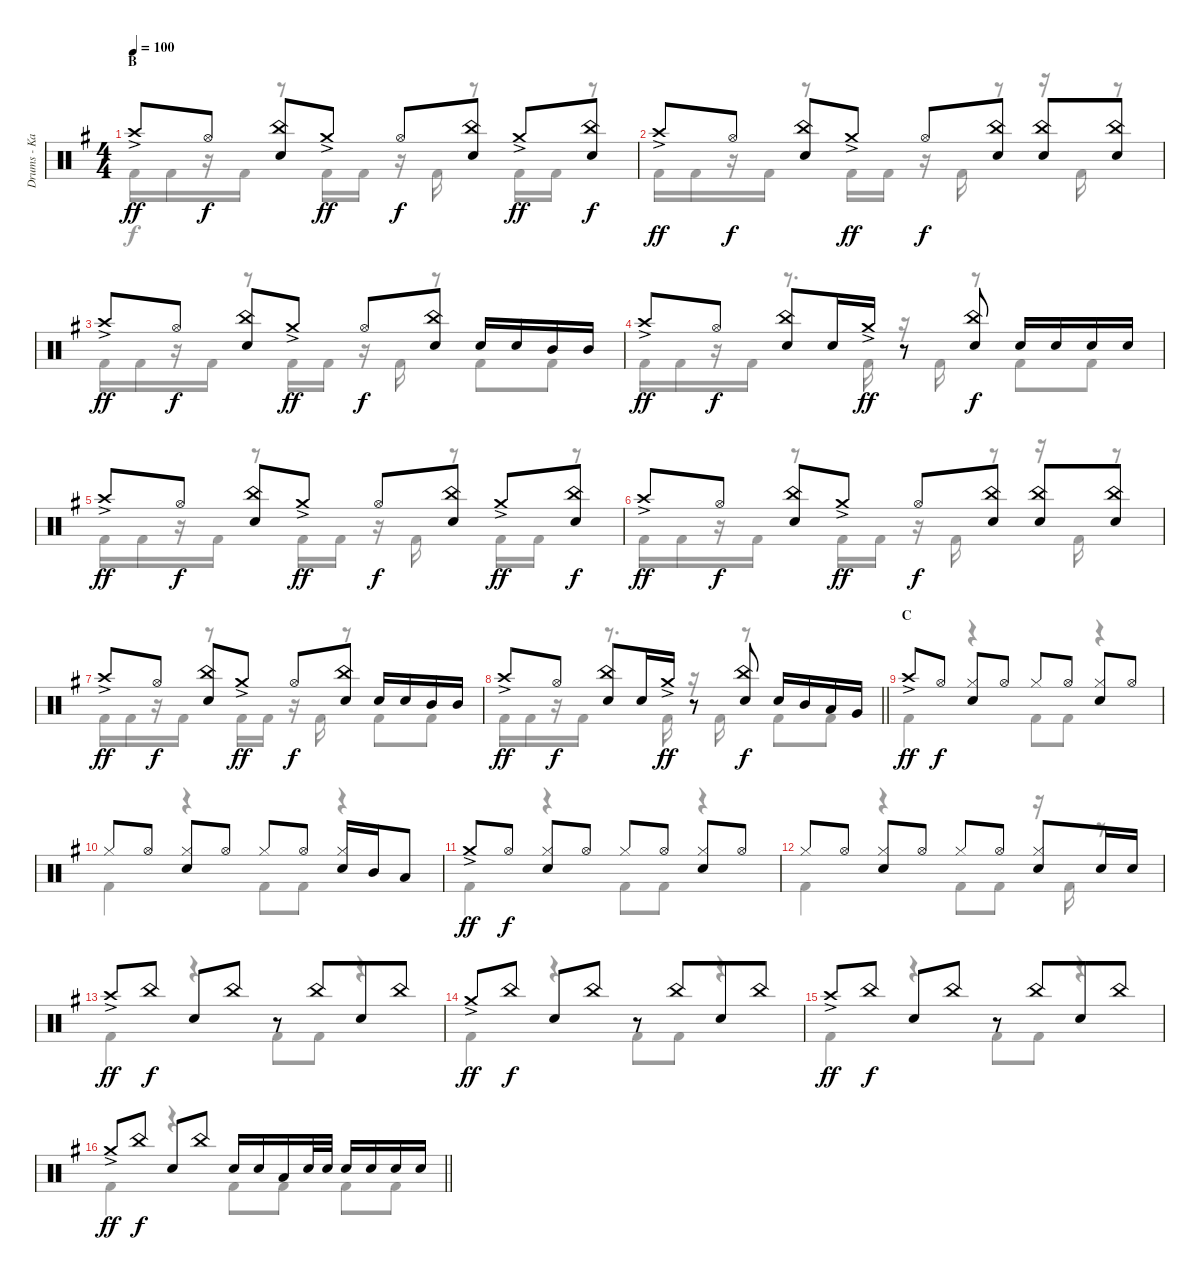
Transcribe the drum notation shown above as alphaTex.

\track ("Drums - Kai" "Drums - Ka") {instrument percussion}
\staff {score}
\articulation defaults
\voice
\ts (4 4)
\section ("" "B")
\tempo 100
\clef neutral
\ks g "Crash high (hit)"{ac}.8{dy ff} "Hi-Hat (open)".8{dy f}
("China (hit)" "Electric Snare (hit)").8 "Crash medium (hit)"{ac}.8{dy ff} "Hi-Hat (open)".8{dy f} ("China (hit)" "Electric Snare (hit)").8 "Crash medium (hit)"{ac}.8{dy ff} ("China (hit)" "Electric Snare (hit)").8{dy f} |
"Crash high (hit)"{ac}.8{dy ff} "Hi-Hat (open)".8{dy f} ("China (hit)" "Electric Snare (hit)").8 "Crash medium (hit)"{ac}.8{dy ff} "Hi-Hat (open)".8{dy f} ("China (hit)" "Electric Snare (hit)").8 ("China (hit)" "Electric Snare (hit)").8 ("China (hit)" "Electric Snare (hit)").8 |
"Crash high (hit)"{ac}.8{dy ff} "Hi-Hat (open)".8{dy f} ("China (hit)" "Electric Snare (hit)").8 "Crash medium (hit)"{ac}.8{dy ff} "Hi-Hat (open)".8{dy f} ("China (hit)" "Electric Snare (hit)").8 "Electric Snare (hit)".16 "Electric Snare (hit)".16 "Mid Tom (hit)".16 "Mid Tom (hit)".16 |
"Crash high (hit)"{ac}.8{dy ff} "Hi-Hat (open)".8{dy f} ("China (hit)" "Electric Snare (hit)").8 "Electric Snare (hit)".16 "Crash medium (hit)"{ac}.16{dy ff} r.8 ("China (hit)" "Electric Snare (hit)").8{dy f} "Electric Snare (hit)".16 "Electric Snare (hit)".16 "Electric Snare (hit)".16 "Electric Snare (hit)".16 |
"Crash high (hit)"{ac}.8{dy ff} "Hi-Hat (open)".8{dy f} ("China (hit)" "Electric Snare (hit)").8 "Crash medium (hit)"{ac}.8{dy ff} "Hi-Hat (open)".8{dy f} ("China (hit)" "Electric Snare (hit)").8 "Crash medium (hit)"{ac}.8{dy ff} ("China (hit)" "Electric Snare (hit)").8{dy f} |
"Crash high (hit)"{ac}.8{dy ff} "Hi-Hat (open)".8{dy f} ("China (hit)" "Electric Snare (hit)").8 "Crash medium (hit)"{ac}.8{dy ff} "Hi-Hat (open)".8{dy f} ("China (hit)" "Electric Snare (hit)").8 ("China (hit)" "Electric Snare (hit)").8 ("China (hit)" "Electric Snare (hit)").8 |
"Crash high (hit)"{ac}.8{dy ff} "Hi-Hat (open)".8{dy f} ("China (hit)" "Electric Snare (hit)").8 "Crash medium (hit)"{ac}.8{dy ff} "Hi-Hat (open)".8{dy f} ("China (hit)" "Electric Snare (hit)").8 "Electric Snare (hit)".16 "Electric Snare (hit)".16 "Mid Tom (hit)".16 "Mid Tom (hit)".16 |
\barLineRight lightlight "Crash high (hit)"{ac}.8{dy ff} "Hi-Hat (open)".8{dy f}
("China (hit)" "Electric Snare (hit)").8 "Electric Snare (hit)".16 "Crash medium (hit)"{ac}.16{dy ff} r.8 ("China (hit)" "Electric Snare (hit)").8{dy f} "Electric Snare (hit)".16 "Mid Tom (hit)".16 "Low Tom (hit)".16 "Very Low Tom (hit)".16 |
\section ("" "C")
"Crash high (hit)"{ac}.8{dy ff} "Hi-Hat (open)".8{dy f} ("Hi-Hat (closed)" "Electric Snare (hit)").8 "Hi-Hat (open)".8 "Hi-Hat (closed)".8 "Hi-Hat (open)".8 ("Hi-Hat (closed)" "Electric Snare (hit)").8 "Hi-Hat (open)".8 |
"Hi-Hat (closed)".8 "Hi-Hat (open)".8 ("Hi-Hat (closed)" "Electric Snare (hit)").8 "Hi-Hat (open)".8 "Hi-Hat (closed)".8 "Hi-Hat (open)".8 ("Hi-Hat (closed)" "Electric Snare (hit)").16 "Mid Tom (hit)".16 "Low Tom (hit)".8 |
"Crash medium (hit)"{ac}.8{dy ff} "Hi-Hat (open)".8{dy f} ("Hi-Hat (closed)" "Electric Snare (hit)").8 "Hi-Hat (open)".8 "Hi-Hat (closed)".8 "Hi-Hat (open)".8 ("Hi-Hat (closed)" "Electric Snare (hit)").8 "Hi-Hat (open)".8 |
"Hi-Hat (closed)".8 "Hi-Hat (open)".8 ("Hi-Hat (closed)" "Electric Snare (hit)").8 "Hi-Hat (open)".8 "Hi-Hat (closed)".8 "Hi-Hat (open)".8 ("Hi-Hat (closed)" "Electric Snare (hit)").8 "Electric Snare (hit)".16 "Electric Snare (hit)".16 |
"Crash high (hit)"{ac}.8{dy ff} "China (hit)".8{dy f} "Electric Snare (hit)".8 "China (hit)".8 r.8 "China (hit)".8{beam merge} "Electric Snare (hit)".8 "China (hit)".8 |
"Crash medium (hit)"{ac}.8{dy ff} "China (hit)".8{dy f} "Electric Snare (hit)".8 "China (hit)".8 r.8 "China (hit)".8{beam merge} "Electric Snare (hit)".8 "China (hit)".8 |
"Crash high (hit)"{ac}.8{dy ff} "China (hit)".8{dy f} "Electric Snare (hit)".8 "China (hit)".8 r.8 "China (hit)".8{beam merge} "Electric Snare (hit)".8 "China (hit)".8 |
\barLineRight lightlight "Crash medium (hit)"{ac}.8{dy ff} "China (hit)".8{dy f} "Electric Snare (hit)".8 "China (hit)".8 "Electric Snare (hit)".16 "Electric Snare (hit)".16 "Low Tom (hit)".16 "Electric Snare (hit)".32 "Electric Snare (hit)".32 "Electric Snare (hit)".16 "Electric Snare (hit)".16 "Electric Snare (hit)".16 "Electric Snare (hit)".16
\voice
\clef neutral
\ottava regular
\simile none
\ks g "Kick (hit) 2".16{dy f} "Kick (hit) 2".16
r.16 "Kick (hit) 2".16 r.8 "Kick (hit) 2".16 "Kick (hit) 2".16 r.16 "Kick (hit) 2".16 r.8 "Kick (hit) 2".16 "Kick (hit) 2".16 r.8 |
"Kick (hit) 2".16 "Kick (hit) 2".16 r.16 "Kick (hit) 2".16 r.8 "Kick (hit) 2".16 "Kick (hit) 2".16 r.16 "Kick (hit) 2".16 r.8 r.16 "Kick (hit) 2".16 r.8 |
"Kick (hit) 2".16 "Kick (hit) 2".16 r.16 "Kick (hit) 2".16 r.8 "Kick (hit) 2".16 "Kick (hit) 2".16 r.16 "Kick (hit) 2".16 r.8 "Kick (hit) 2".8 "Kick (hit) 2".8 |
"Kick (hit) 2".16 "Kick (hit) 2".16 r.16 "Kick (hit) 2".16 r.8{d} "Kick (hit) 2".16 r.16 "Kick (hit) 2".16 r.8 "Kick (hit) 2".8 "Kick (hit) 2".8 |
"Kick (hit) 2".16 "Kick (hit) 2".16 r.16 "Kick (hit) 2".16 r.8 "Kick (hit) 2".16 "Kick (hit) 2".16 r.16 "Kick (hit) 2".16 r.8 "Kick (hit) 2".16 "Kick (hit) 2".16 r.8 |
"Kick (hit) 2".16 "Kick (hit) 2".16 r.16 "Kick (hit) 2".16 r.8 "Kick (hit) 2".16 "Kick (hit) 2".16 r.16 "Kick (hit) 2".16 r.8 r.16 "Kick (hit) 2".16 r.8 |
"Kick (hit) 2".16 "Kick (hit) 2".16 r.16 "Kick (hit) 2".16 r.8 "Kick (hit) 2".16 "Kick (hit) 2".16 r.16 "Kick (hit) 2".16 r.8 "Kick (hit) 2".8 "Kick (hit) 2".8 |
\barLineRight lightlight "Kick (hit) 2".16 "Kick (hit) 2".16
r.16 "Kick (hit) 2".16 r.8{d} "Kick (hit) 2".16 r.16 "Kick (hit) 2".16 r.8 "Kick (hit) 2".8 "Kick (hit) 2".8 |
"Kick (hit) 2".4 r.4 "Kick (hit) 2".8 "Kick (hit) 2".8 r.4 |
"Kick (hit) 2".4 r.4 "Kick (hit) 2".8 "Kick (hit) 2".8 r.4 |
"Kick (hit) 2".4 r.4 "Kick (hit) 2".8 "Kick (hit) 2".8 r.4 |
"Kick (hit) 2".4 r.4 "Kick (hit) 2".8 "Kick (hit) 2".8 r.16 "Kick (hit) 2".16 r.8 |
"Kick (hit) 2".4 r.4 "Kick (hit) 2".8 "Kick (hit) 2".8 r.4 |
"Kick (hit) 2".4 r.4 "Kick (hit) 2".8 "Kick (hit) 2".8 r.4 |
"Kick (hit) 2".4 r.4 "Kick (hit) 2".8 "Kick (hit) 2".8 r.4 |
\barLineRight lightlight "Kick (hit) 2".4
r.4 "Kick (hit) 2".8 "Kick (hit) 2".8 "Kick (hit) 2".8 "Kick (hit) 2".8
